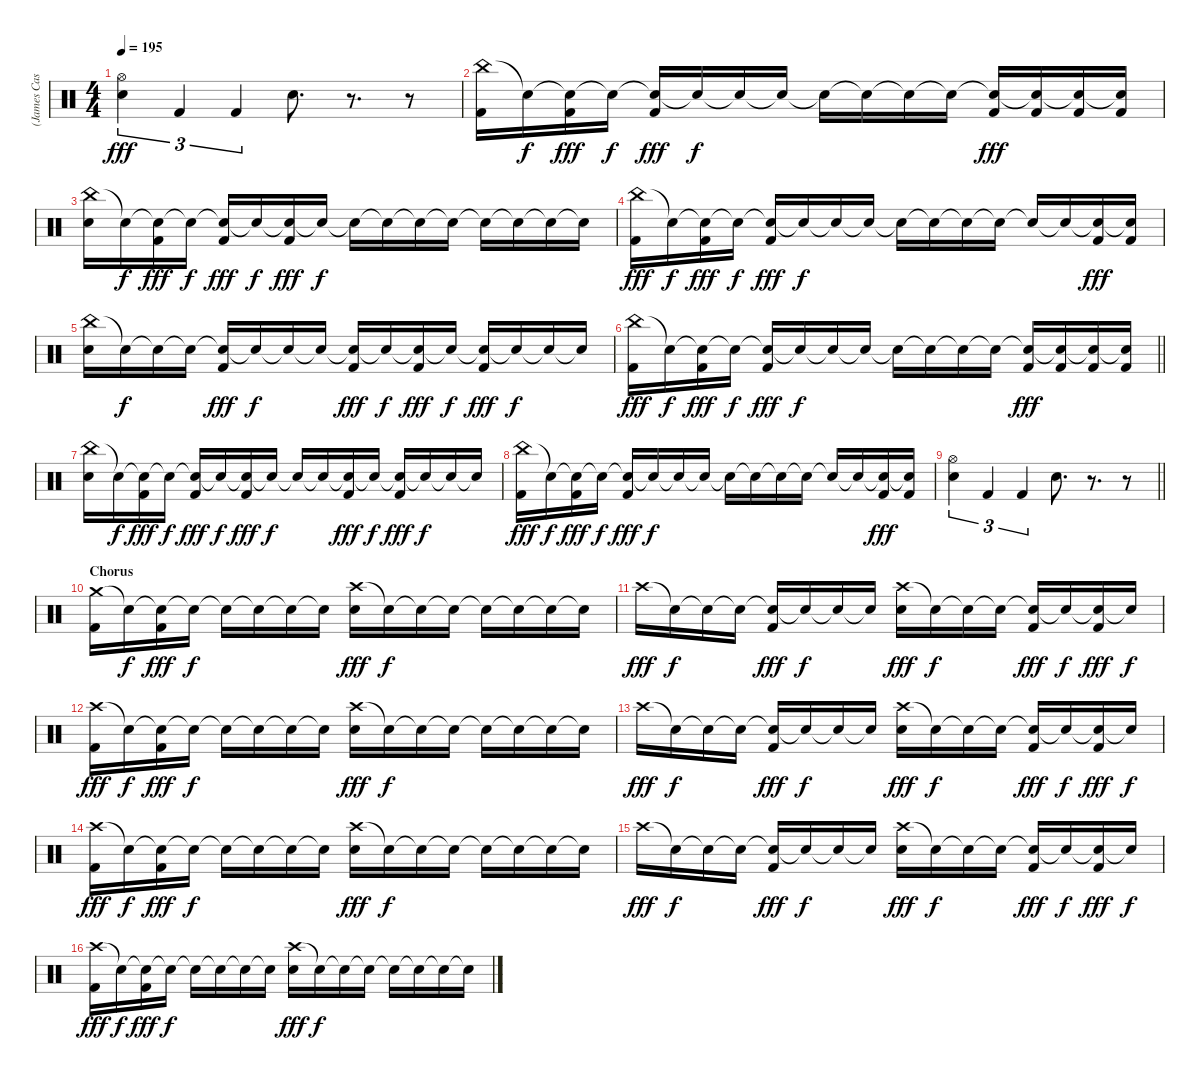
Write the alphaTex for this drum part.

\track ("(James Cassells) Drums" "(James Cas") {instrument percussion}
\staff {score}
\articulation defaults
\ts (4 4)
\tempo 195
\clef neutral
\ks c
("Hi-Hat (open)" "Electric Snare (hit)").4{tu (3 2) dy fff} "Kick (hit) 2".4{tu (3 2)} "Kick (hit) 2".4{tu (3 2)} "Electric Snare (hit)".8{d} r.8{d} r.8 |
("China (hit)" "Kick (hit) 2").16 "Snare (hit)"{t}.16{dy f} ("Snare (hit)"{t} "Kick (hit) 2").16{dy fff} "Snare (hit)"{t}.16{dy f} ("Snare (hit)"{t} "Kick (hit) 2").16{dy fff} "Snare (hit)"{t}.16{dy f} "Snare (hit)"{t}.16 "Snare (hit)"{t}.16 "Snare (hit)"{t}.16 "Snare (hit)"{t}.16 "Snare (hit)"{t}.16 "Snare (hit)"{t}.16 ("Snare (hit)"{t} "Kick (hit) 2").16{dy fff} ("Snare (hit)"{t} "Kick (hit) 2").16 ("Snare (hit)"{t} "Kick (hit) 2").16 ("Snare (hit)"{t} "Kick (hit) 2").16 |
("China (hit)" "Electric Snare (hit)").16 "Snare (hit)"{t}.16{dy f} ("Snare (hit)"{t} "Kick (hit) 2").16{dy fff} "Snare (hit)"{t}.16{dy f} ("Snare (hit)"{t} "Kick (hit) 2").16{dy fff} "Snare (hit)"{t}.16{dy f} ("Snare (hit)"{t} "Kick (hit) 2").16{dy fff} "Snare (hit)"{t}.16{dy f} "Snare (hit)"{t}.16 "Snare (hit)"{t}.16 "Snare (hit)"{t}.16 "Snare (hit)"{t}.16 "Snare (hit)"{t}.16 "Snare (hit)"{t}.16 "Snare (hit)"{t}.16 "Snare (hit)"{t}.16 |
("China (hit)" "Kick (hit) 2").16{dy fff} "Snare (hit)"{t}.16{dy f} ("Snare (hit)"{t} "Kick (hit) 2").16{dy fff} "Snare (hit)"{t}.16{dy f} ("Snare (hit)"{t} "Kick (hit) 2").16{dy fff} "Snare (hit)"{t}.16{dy f} "Snare (hit)"{t}.16 "Snare (hit)"{t}.16 "Snare (hit)"{t}.16 "Snare (hit)"{t}.16 "Snare (hit)"{t}.16 "Snare (hit)"{t}.16 "Snare (hit)"{t}.16 "Snare (hit)"{t}.16 ("Snare (hit)"{t} "Kick (hit) 2").16{dy fff} ("Snare (hit)"{t} "Kick (hit) 2").16 |
("China (hit)" "Electric Snare (hit)").16 "Snare (hit)"{t}.16{dy f} "Snare (hit)"{t}.16 "Snare (hit)"{t}.16 ("Snare (hit)"{t} "Kick (hit) 2").16{dy fff} "Snare (hit)"{t}.16{dy f} "Snare (hit)"{t}.16 "Snare (hit)"{t}.16 ("Snare (hit)"{t} "Kick (hit) 2").16{dy fff} "Snare (hit)"{t}.16{dy f} ("Snare (hit)"{t} "Kick (hit) 2").16{dy fff} "Snare (hit)"{t}.16{dy f} ("Snare (hit)"{t} "Kick (hit) 2").16{dy fff} "Snare (hit)"{t}.16{dy f} "Snare (hit)"{t}.16 "Snare (hit)"{t}.16 |
\barLineRight lightlight
("China (hit)" "Kick (hit) 2").16{dy fff} "Snare (hit)"{t}.16{dy f} ("Snare (hit)"{t} "Kick (hit) 2").16{dy fff} "Snare (hit)"{t}.16{dy f} ("Snare (hit)"{t} "Kick (hit) 2").16{dy fff} "Snare (hit)"{t}.16{dy f} "Snare (hit)"{t}.16 "Snare (hit)"{t}.16 "Snare (hit)"{t}.16 "Snare (hit)"{t}.16 "Snare (hit)"{t}.16 "Snare (hit)"{t}.16 ("Snare (hit)"{t} "Kick (hit) 2").16{dy fff} ("Snare (hit)"{t} "Kick (hit) 2").16 ("Snare (hit)"{t} "Kick (hit) 2").16 ("Snare (hit)"{t} "Kick (hit) 2").16 |
("China (hit)" "Electric Snare (hit)").16 "Snare (hit)"{t}.16{dy f} ("Snare (hit)"{t} "Kick (hit) 2").16{dy fff} "Snare (hit)"{t}.16{dy f} ("Snare (hit)"{t} "Kick (hit) 2").16{dy fff} "Snare (hit)"{t}.16{dy f} ("Snare (hit)"{t} "Kick (hit) 2").16{dy fff} "Snare (hit)"{t}.16{dy f} "Snare (hit)"{t}.16 "Snare (hit)"{t}.16 ("Snare (hit)"{t} "Kick (hit) 2").16{dy fff} "Snare (hit)"{t}.16{dy f} ("Snare (hit)"{t} "Kick (hit) 2").16{dy fff} "Snare (hit)"{t}.16{dy f} "Snare (hit)"{t}.16 "Snare (hit)"{t}.16 |
("China (hit)" "Kick (hit) 2").16{dy fff} "Snare (hit)"{t}.16{dy f} ("Snare (hit)"{t} "Kick (hit) 2").16{dy fff} "Snare (hit)"{t}.16{dy f} ("Snare (hit)"{t} "Kick (hit) 2").16{dy fff} "Snare (hit)"{t}.16{dy f} "Snare (hit)"{t}.16 "Snare (hit)"{t}.16 "Snare (hit)"{t}.16 "Snare (hit)"{t}.16 "Snare (hit)"{t}.16 "Snare (hit)"{t}.16 "Snare (hit)"{t}.16 "Snare (hit)"{t}.16 ("Snare (hit)"{t} "Kick (hit) 2").16{dy fff} ("Snare (hit)"{t} "Kick (hit) 2").16 |
\barLineRight lightlight
("Hi-Hat (open)" "Electric Snare (hit)").4{tu (3 2)} "Kick (hit) 2".4{tu (3 2)} "Kick (hit) 2".4{tu (3 2)} "Electric Snare (hit)".8{d} r.8{d} r.8 |
\section ("" "Chorus")
("Crash medium (hit)" "Kick (hit) 2").16 "Snare (hit)"{t}.16{dy f} ("Snare (hit)"{t} "Kick (hit) 2").16{dy fff} "Snare (hit)"{t}.16{dy f} "Snare (hit)"{t}.16 "Snare (hit)"{t}.16 "Snare (hit)"{t}.16 "Snare (hit)"{t}.16 ("Crash high (hit)" "Electric Snare (hit)").16{dy fff} "Snare (hit)"{t}.16{dy f} "Snare (hit)"{t}.16 "Snare (hit)"{t}.16 "Snare (hit)"{t}.16 "Snare (hit)"{t}.16 "Snare (hit)"{t}.16 "Snare (hit)"{t}.16 |
"Crash high (hit)".16{dy fff} "Snare (hit)"{t}.16{dy f} "Snare (hit)"{t}.16 "Snare (hit)"{t}.16 ("Snare (hit)"{t} "Kick (hit) 2").16{dy fff} "Snare (hit)"{t}.16{dy f} "Snare (hit)"{t}.16 "Snare (hit)"{t}.16 ("Crash high (hit)" "Electric Snare (hit)").16{dy fff} "Snare (hit)"{t}.16{dy f} "Snare (hit)"{t}.16 "Snare (hit)"{t}.16 ("Snare (hit)"{t} "Kick (hit) 2").16{dy fff} "Snare (hit)"{t}.16{dy f} ("Snare (hit)"{t} "Kick (hit) 2").16{dy fff} "Snare (hit)"{t}.16{dy f} |
("Crash high (hit)" "Kick (hit) 2").16{dy fff} "Snare (hit)"{t}.16{dy f} ("Snare (hit)"{t} "Kick (hit) 2").16{dy fff} "Snare (hit)"{t}.16{dy f} "Snare (hit)"{t}.16 "Snare (hit)"{t}.16 "Snare (hit)"{t}.16 "Snare (hit)"{t}.16 ("Crash high (hit)" "Electric Snare (hit)").16{dy fff} "Snare (hit)"{t}.16{dy f} "Snare (hit)"{t}.16 "Snare (hit)"{t}.16 "Snare (hit)"{t}.16 "Snare (hit)"{t}.16 "Snare (hit)"{t}.16 "Snare (hit)"{t}.16 |
"Crash high (hit)".16{dy fff} "Snare (hit)"{t}.16{dy f} "Snare (hit)"{t}.16 "Snare (hit)"{t}.16 ("Snare (hit)"{t} "Kick (hit) 2").16{dy fff} "Snare (hit)"{t}.16{dy f} "Snare (hit)"{t}.16 "Snare (hit)"{t}.16 ("Crash high (hit)" "Electric Snare (hit)").16{dy fff} "Snare (hit)"{t}.16{dy f} "Snare (hit)"{t}.16 "Snare (hit)"{t}.16 ("Snare (hit)"{t} "Kick (hit) 2").16{dy fff} "Snare (hit)"{t}.16{dy f} ("Snare (hit)"{t} "Kick (hit) 2").16{dy fff} "Snare (hit)"{t}.16{dy f} |
("Crash high (hit)" "Kick (hit) 2").16{dy fff} "Snare (hit)"{t}.16{dy f} ("Snare (hit)"{t} "Kick (hit) 2").16{dy fff} "Snare (hit)"{t}.16{dy f} "Snare (hit)"{t}.16 "Snare (hit)"{t}.16 "Snare (hit)"{t}.16 "Snare (hit)"{t}.16 ("Crash high (hit)" "Electric Snare (hit)").16{dy fff} "Snare (hit)"{t}.16{dy f} "Snare (hit)"{t}.16 "Snare (hit)"{t}.16 "Snare (hit)"{t}.16 "Snare (hit)"{t}.16 "Snare (hit)"{t}.16 "Snare (hit)"{t}.16 |
"Crash high (hit)".16{dy fff} "Snare (hit)"{t}.16{dy f} "Snare (hit)"{t}.16 "Snare (hit)"{t}.16 ("Snare (hit)"{t} "Kick (hit) 2").16{dy fff} "Snare (hit)"{t}.16{dy f} "Snare (hit)"{t}.16 "Snare (hit)"{t}.16 ("Crash high (hit)" "Electric Snare (hit)").16{dy fff} "Snare (hit)"{t}.16{dy f} "Snare (hit)"{t}.16 "Snare (hit)"{t}.16 ("Snare (hit)"{t} "Kick (hit) 2").16{dy fff} "Snare (hit)"{t}.16{dy f} ("Snare (hit)"{t} "Kick (hit) 2").16{dy fff} "Snare (hit)"{t}.16{dy f} |
("Crash high (hit)" "Kick (hit) 2").16{dy fff} "Snare (hit)"{t}.16{dy f} ("Snare (hit)"{t} "Kick (hit) 2").16{dy fff} "Snare (hit)"{t}.16{dy f} "Snare (hit)"{t}.16 "Snare (hit)"{t}.16 "Snare (hit)"{t}.16 "Snare (hit)"{t}.16 ("Crash high (hit)" "Electric Snare (hit)").16{dy fff} "Snare (hit)"{t}.16{dy f} "Snare (hit)"{t}.16 "Snare (hit)"{t}.16 "Snare (hit)"{t}.16 "Snare (hit)"{t}.16 "Snare (hit)"{t}.16 "Snare (hit)"{t}.16
